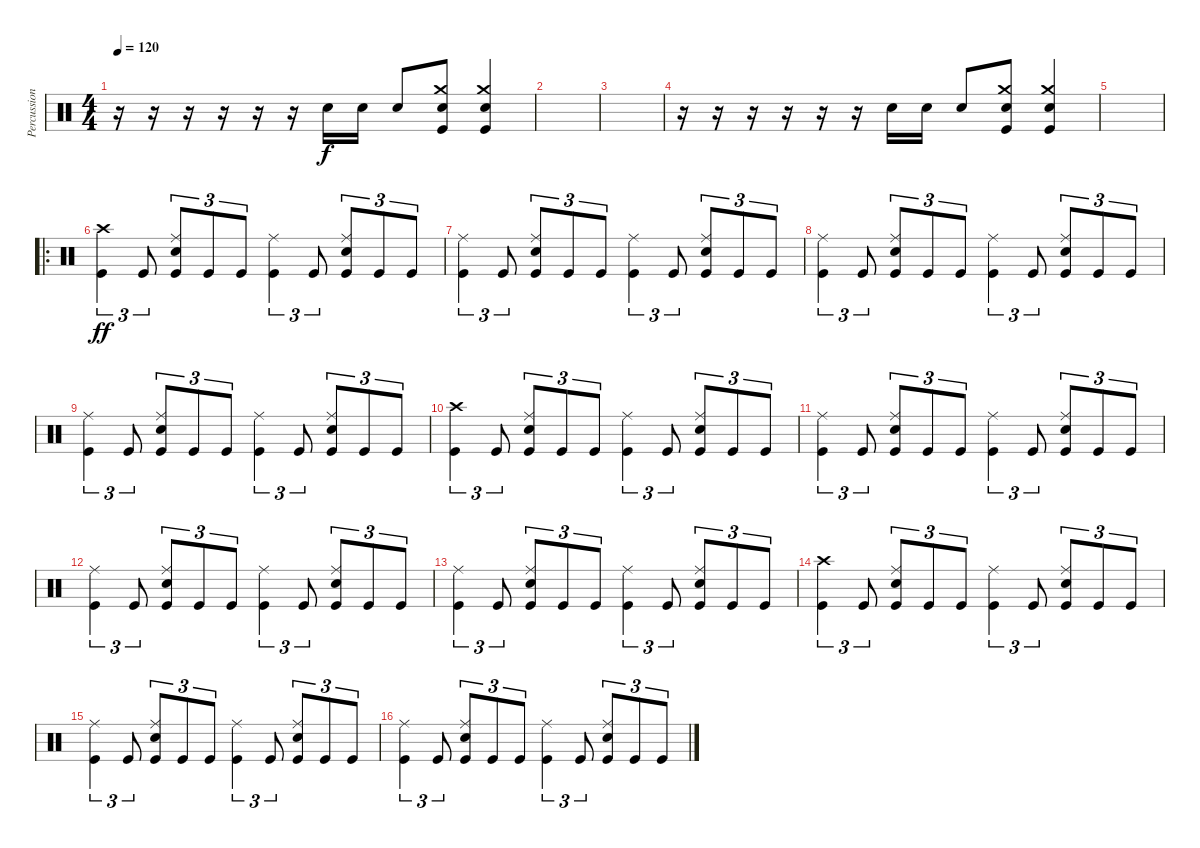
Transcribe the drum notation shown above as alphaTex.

\track ("Percussion" "Percussion") {instrument percussion}
\staff {score}
\articulation defaults
\ts (4 4)
\tempo 120
\clef neutral
\ks c
r.16{dy f} r.16 r.16 r.16 r.16 r.16 "Snare (hit) 2".16 "Snare (hit) 2".16 "Snare (hit) 2".8 ("Crash medium (hit)" "Snare (hit) 2" "Kick (hit)").8 ("Crash medium (hit)" "Snare (hit) 2" "Kick (hit)").4 |
|
|
r.16 r.16 r.16 r.16 r.16 r.16 "Snare (hit) 2".16 "Snare (hit) 2".16 "Snare (hit) 2".8 ("Crash medium (hit)" "Snare (hit) 2" "Kick (hit)").8 ("Crash medium (hit)" "Snare (hit) 2" "Kick (hit)").4 |
|
\ro
("Crash high (hit)" "Kick (hit)").4{tu (3 2) dy ff} "Kick (hit)".8{tu (3 2)} ("Ride (middle)" "Electric Snare (hit)" "Kick (hit)").8{tu (3 2)} "Kick (hit)".8{tu (3 2)} "Kick (hit)".8{tu (3 2)} ("Ride (middle)" "Kick (hit)").4{tu (3 2)} "Kick (hit)".8{tu (3 2)} ("Ride (middle)" "Electric Snare (hit)" "Kick (hit)").8{tu (3 2)} "Kick (hit)".8{tu (3 2)} "Kick (hit)".8{tu (3 2)} |
("Ride (middle)" "Kick (hit)").4{tu (3 2)} "Kick (hit)".8{tu (3 2)} ("Ride (middle)" "Electric Snare (hit)" "Kick (hit)").8{tu (3 2)} "Kick (hit)".8{tu (3 2)} "Kick (hit)".8{tu (3 2)} ("Ride (middle)" "Kick (hit)").4{tu (3 2)} "Kick (hit)".8{tu (3 2)} ("Ride (middle)" "Electric Snare (hit)" "Kick (hit)").8{tu (3 2)} "Kick (hit)".8{tu (3 2)} "Kick (hit)".8{tu (3 2)} |
("Ride (middle)" "Kick (hit)").4{tu (3 2)} "Kick (hit)".8{tu (3 2)} ("Ride (middle)" "Electric Snare (hit)" "Kick (hit)").8{tu (3 2)} "Kick (hit)".8{tu (3 2)} "Kick (hit)".8{tu (3 2)} ("Ride (middle)" "Kick (hit)").4{tu (3 2)} "Kick (hit)".8{tu (3 2)} ("Ride (middle)" "Electric Snare (hit)" "Kick (hit)").8{tu (3 2)} "Kick (hit)".8{tu (3 2)} "Kick (hit)".8{tu (3 2)} |
("Ride (middle)" "Kick (hit)").4{tu (3 2)} "Kick (hit)".8{tu (3 2)} ("Ride (middle)" "Electric Snare (hit)" "Kick (hit)").8{tu (3 2)} "Kick (hit)".8{tu (3 2)} "Kick (hit)".8{tu (3 2)} ("Ride (middle)" "Kick (hit)").4{tu (3 2)} "Kick (hit)".8{tu (3 2)} ("Ride (middle)" "Electric Snare (hit)" "Kick (hit)").8{tu (3 2)} "Kick (hit)".8{tu (3 2)} "Kick (hit)".8{tu (3 2)} |
("Crash high (hit)" "Kick (hit)").4{tu (3 2)} "Kick (hit)".8{tu (3 2)} ("Ride (middle)" "Electric Snare (hit)" "Kick (hit)").8{tu (3 2)} "Kick (hit)".8{tu (3 2)} "Kick (hit)".8{tu (3 2)} ("Ride (middle)" "Kick (hit)").4{tu (3 2)} "Kick (hit)".8{tu (3 2)} ("Ride (middle)" "Electric Snare (hit)" "Kick (hit)").8{tu (3 2)} "Kick (hit)".8{tu (3 2)} "Kick (hit)".8{tu (3 2)} |
("Ride (middle)" "Kick (hit)").4{tu (3 2)} "Kick (hit)".8{tu (3 2)} ("Ride (middle)" "Electric Snare (hit)" "Kick (hit)").8{tu (3 2)} "Kick (hit)".8{tu (3 2)} "Kick (hit)".8{tu (3 2)} ("Ride (middle)" "Kick (hit)").4{tu (3 2)} "Kick (hit)".8{tu (3 2)} ("Ride (middle)" "Electric Snare (hit)" "Kick (hit)").8{tu (3 2)} "Kick (hit)".8{tu (3 2)} "Kick (hit)".8{tu (3 2)} |
("Ride (middle)" "Kick (hit)").4{tu (3 2)} "Kick (hit)".8{tu (3 2)} ("Ride (middle)" "Electric Snare (hit)" "Kick (hit)").8{tu (3 2)} "Kick (hit)".8{tu (3 2)} "Kick (hit)".8{tu (3 2)} ("Ride (middle)" "Kick (hit)").4{tu (3 2)} "Kick (hit)".8{tu (3 2)} ("Ride (middle)" "Electric Snare (hit)" "Kick (hit)").8{tu (3 2)} "Kick (hit)".8{tu (3 2)} "Kick (hit)".8{tu (3 2)} |
("Ride (middle)" "Kick (hit)").4{tu (3 2)} "Kick (hit)".8{tu (3 2)} ("Ride (middle)" "Electric Snare (hit)" "Kick (hit)").8{tu (3 2)} "Kick (hit)".8{tu (3 2)} "Kick (hit)".8{tu (3 2)} ("Ride (middle)" "Kick (hit)").4{tu (3 2)} "Kick (hit)".8{tu (3 2)} ("Ride (middle)" "Electric Snare (hit)" "Kick (hit)").8{tu (3 2)} "Kick (hit)".8{tu (3 2)} "Kick (hit)".8{tu (3 2)} |
("Crash high (hit)" "Kick (hit)").4{tu (3 2)} "Kick (hit)".8{tu (3 2)} ("Ride (middle)" "Electric Snare (hit)" "Kick (hit)").8{tu (3 2)} "Kick (hit)".8{tu (3 2)} "Kick (hit)".8{tu (3 2)} ("Ride (middle)" "Kick (hit)").4{tu (3 2)} "Kick (hit)".8{tu (3 2)} ("Ride (middle)" "Electric Snare (hit)" "Kick (hit)").8{tu (3 2)} "Kick (hit)".8{tu (3 2)} "Kick (hit)".8{tu (3 2)} |
("Ride (middle)" "Kick (hit)").4{tu (3 2)} "Kick (hit)".8{tu (3 2)} ("Ride (middle)" "Electric Snare (hit)" "Kick (hit)").8{tu (3 2)} "Kick (hit)".8{tu (3 2)} "Kick (hit)".8{tu (3 2)} ("Ride (middle)" "Kick (hit)").4{tu (3 2)} "Kick (hit)".8{tu (3 2)} ("Ride (middle)" "Electric Snare (hit)" "Kick (hit)").8{tu (3 2)} "Kick (hit)".8{tu (3 2)} "Kick (hit)".8{tu (3 2)} |
("Ride (middle)" "Kick (hit)").4{tu (3 2)} "Kick (hit)".8{tu (3 2)} ("Ride (middle)" "Electric Snare (hit)" "Kick (hit)").8{tu (3 2)} "Kick (hit)".8{tu (3 2)} "Kick (hit)".8{tu (3 2)} ("Ride (middle)" "Kick (hit)").4{tu (3 2)} "Kick (hit)".8{tu (3 2)} ("Ride (middle)" "Electric Snare (hit)" "Kick (hit)").8{tu (3 2)} "Kick (hit)".8{tu (3 2)} "Kick (hit)".8{tu (3 2)}
